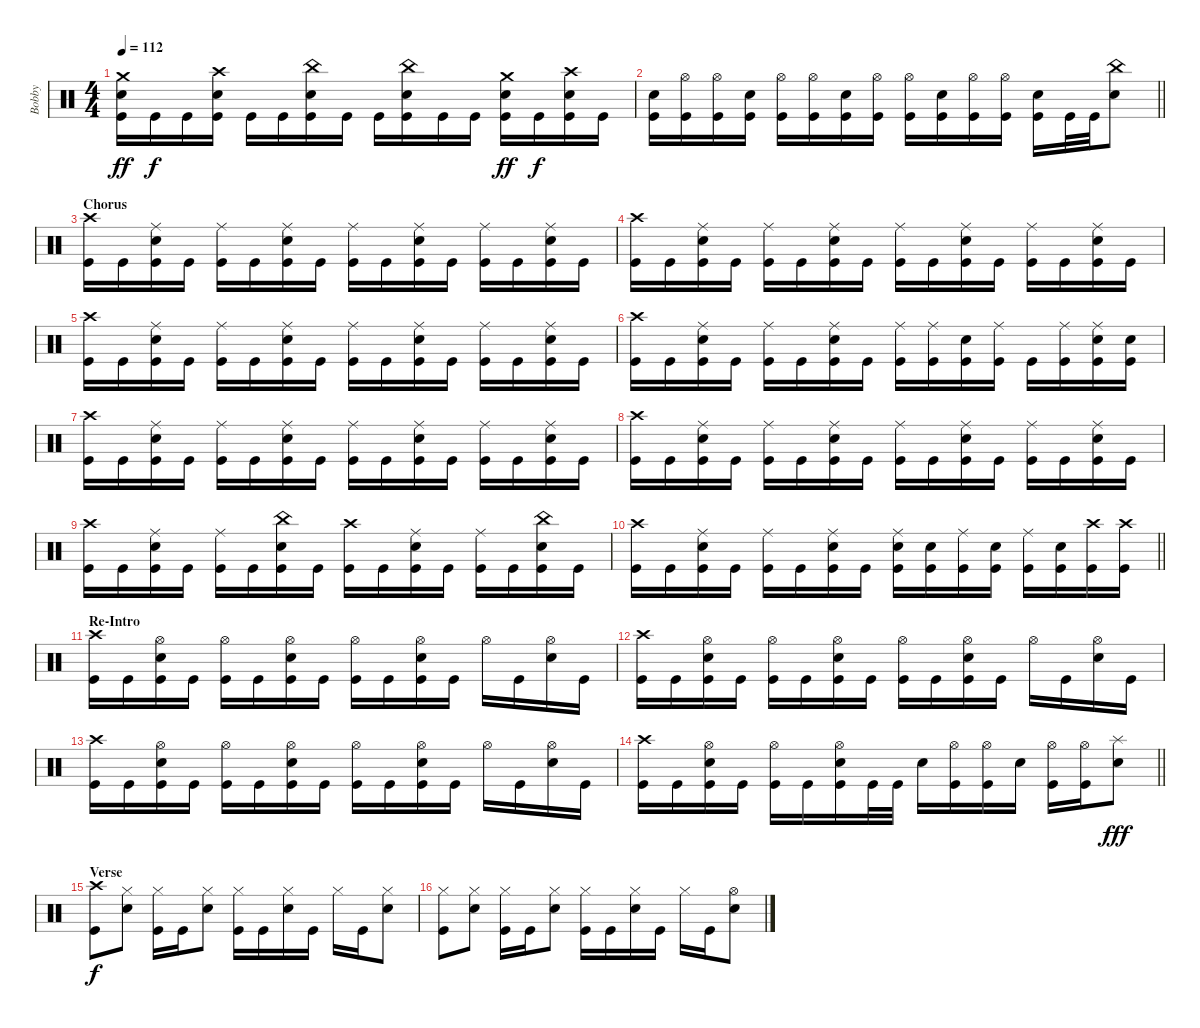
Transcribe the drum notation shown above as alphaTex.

\track ("Bobby" "Bobby") {instrument percussion}
\staff {score}
\articulation defaults
\ts (4 4)
\tempo 112
\clef neutral
\ks c
("Crash medium (hit)" "Electric Snare (hit)" "Kick (hit)").16{dy ff} "Kick (hit)".16{dy f} "Kick (hit)".16 ("Crash high (hit)" "Electric Snare (hit)" "Kick (hit)").16 "Kick (hit)".16 "Kick (hit)".16 ("China (hit)" "Electric Snare (hit)" "Kick (hit)").16 "Kick (hit)".16 "Kick (hit)".16 ("China (hit)" "Electric Snare (hit)" "Kick (hit)").16 "Kick (hit)".16 "Kick (hit)".16 ("Crash medium (hit)" "Electric Snare (hit)" "Kick (hit)").16{dy ff} "Kick (hit)".16{dy f} ("Crash high (hit)" "Electric Snare (hit)" "Kick (hit)").16 "Kick (hit)".16 |
\barLineRight lightlight
("Electric Snare (hit)" "Kick (hit)").16 ("Hi-Hat (open)" "Kick (hit)").16 ("Hi-Hat (open)" "Kick (hit)").16 ("Electric Snare (hit)" "Kick (hit)").16 ("Hi-Hat (open)" "Kick (hit)").16 ("Hi-Hat (open)" "Kick (hit)").16 ("Electric Snare (hit)" "Kick (hit)").16 ("Hi-Hat (open)" "Kick (hit)").16 ("Hi-Hat (open)" "Kick (hit)").16 ("Electric Snare (hit)" "Kick (hit)").16 ("Hi-Hat (open)" "Kick (hit)").16 ("Hi-Hat (open)" "Kick (hit)").16 ("Electric Snare (hit)" "Kick (hit)").16 "Kick (hit)".32 "Kick (hit)".32 ("China (hit)" "Electric Snare (hit)").8 |
\section ("" "Chorus")
("Crash high (hit)" "Kick (hit)").16 "Kick (hit)".16 ("Ride (middle)" "Electric Snare (hit)" "Kick (hit)").16 "Kick (hit)".16 ("Ride (middle)" "Kick (hit)").16 "Kick (hit)".16 ("Ride (middle)" "Electric Snare (hit)" "Kick (hit)").16 "Kick (hit)".16 ("Ride (middle)" "Kick (hit)").16 "Kick (hit)".16 ("Ride (middle)" "Electric Snare (hit)" "Kick (hit)").16 "Kick (hit)".16 ("Ride (middle)" "Kick (hit)").16 "Kick (hit)".16 ("Ride (middle)" "Electric Snare (hit)" "Kick (hit)").16 "Kick (hit)".16 |
("Crash high (hit)" "Kick (hit)").16 "Kick (hit)".16 ("Ride (middle)" "Electric Snare (hit)" "Kick (hit)").16 "Kick (hit)".16 ("Ride (middle)" "Kick (hit)").16 "Kick (hit)".16 ("Ride (middle)" "Electric Snare (hit)" "Kick (hit)").16 "Kick (hit)".16 ("Ride (middle)" "Kick (hit)").16 "Kick (hit)".16 ("Ride (middle)" "Electric Snare (hit)" "Kick (hit)").16 "Kick (hit)".16 ("Ride (middle)" "Kick (hit)").16 "Kick (hit)".16 ("Ride (middle)" "Electric Snare (hit)" "Kick (hit)").16 "Kick (hit)".16 |
("Crash high (hit)" "Kick (hit)").16 "Kick (hit)".16 ("Ride (middle)" "Electric Snare (hit)" "Kick (hit)").16 "Kick (hit)".16 ("Ride (middle)" "Kick (hit)").16 "Kick (hit)".16 ("Ride (middle)" "Electric Snare (hit)" "Kick (hit)").16 "Kick (hit)".16 ("Ride (middle)" "Kick (hit)").16 "Kick (hit)".16 ("Ride (middle)" "Electric Snare (hit)" "Kick (hit)").16 "Kick (hit)".16 ("Ride (middle)" "Kick (hit)").16 "Kick (hit)".16 ("Ride (middle)" "Electric Snare (hit)" "Kick (hit)").16 "Kick (hit)".16 |
("Crash high (hit)" "Kick (hit)").16 "Kick (hit)".16 ("Ride (middle)" "Electric Snare (hit)" "Kick (hit)").16 "Kick (hit)".16 ("Ride (middle)" "Kick (hit)").16 "Kick (hit)".16 ("Ride (middle)" "Electric Snare (hit)" "Kick (hit)").16 "Kick (hit)".16 ("Ride (middle)" "Kick (hit)").16 ("Ride (middle)" "Kick (hit)").16 ("Electric Snare (hit)" "Kick (hit)").16 ("Ride (middle)" "Kick (hit)").16 "Kick (hit)".16 ("Ride (middle)" "Kick (hit)").16 ("Ride (middle)" "Electric Snare (hit)" "Kick (hit)").16 ("Electric Snare (hit)" "Kick (hit)").16 |
("Crash high (hit)" "Kick (hit)").16 "Kick (hit)".16 ("Ride (middle)" "Electric Snare (hit)" "Kick (hit)").16 "Kick (hit)".16 ("Ride (middle)" "Kick (hit)").16 "Kick (hit)".16 ("Ride (middle)" "Electric Snare (hit)" "Kick (hit)").16 "Kick (hit)".16 ("Ride (middle)" "Kick (hit)").16 "Kick (hit)".16 ("Ride (middle)" "Electric Snare (hit)" "Kick (hit)").16 "Kick (hit)".16 ("Ride (middle)" "Kick (hit)").16 "Kick (hit)".16 ("Ride (middle)" "Electric Snare (hit)" "Kick (hit)").16 "Kick (hit)".16 |
("Crash high (hit)" "Kick (hit)").16 "Kick (hit)".16 ("Ride (middle)" "Electric Snare (hit)" "Kick (hit)").16 "Kick (hit)".16 ("Ride (middle)" "Kick (hit)").16 "Kick (hit)".16 ("Ride (middle)" "Electric Snare (hit)" "Kick (hit)").16 "Kick (hit)".16 ("Ride (middle)" "Kick (hit)").16 "Kick (hit)".16 ("Ride (middle)" "Electric Snare (hit)" "Kick (hit)").16 "Kick (hit)".16 ("Ride (middle)" "Kick (hit)").16 "Kick (hit)".16 ("Ride (middle)" "Electric Snare (hit)" "Kick (hit)").16 "Kick (hit)".16 |
("Crash high (hit)" "Kick (hit)").16 "Kick (hit)".16 ("Ride (middle)" "Electric Snare (hit)" "Kick (hit)").16 "Kick (hit)".16 ("Ride (middle)" "Kick (hit)").16 "Kick (hit)".16 ("China (hit)" "Electric Snare (hit)" "Kick (hit)").16 "Kick (hit)".16 ("Crash high (hit)" "Kick (hit)").16 "Kick (hit)".16 ("Ride (middle)" "Electric Snare (hit)" "Kick (hit)").16 "Kick (hit)".16 ("Ride (middle)" "Kick (hit)").16 "Kick (hit)".16 ("China (hit)" "Electric Snare (hit)" "Kick (hit)").16 "Kick (hit)".16 |
\barLineRight lightlight
("Crash high (hit)" "Kick (hit)").16 "Kick (hit)".16 ("Ride (middle)" "Electric Snare (hit)" "Kick (hit)").16 "Kick (hit)".16 ("Ride (middle)" "Kick (hit)").16 "Kick (hit)".16 ("Ride (middle)" "Electric Snare (hit)" "Kick (hit)").16 "Kick (hit)".16 ("Ride (middle)" "Electric Snare (hit)" "Kick (hit)").16 ("Electric Snare (hit)" "Kick (hit)").16 ("Ride (middle)" "Kick (hit)").16 ("Electric Snare (hit)" "Kick (hit)").16 ("Ride (middle)" "Kick (hit)").16 ("Electric Snare (hit)" "Kick (hit)").16 ("Crash high (hit)" "Kick (hit)").16 ("Crash high (hit)" "Kick (hit)").16 |
\section ("" "Re-Intro")
("Crash high (hit)" "Kick (hit)").16 "Kick (hit)".16 ("Hi-Hat (open)" "Electric Snare (hit)" "Kick (hit)").16 "Kick (hit)".16 ("Hi-Hat (open)" "Kick (hit)").16 "Kick (hit)".16 ("Hi-Hat (open)" "Electric Snare (hit)" "Kick (hit)").16 "Kick (hit)".16 ("Hi-Hat (open)" "Kick (hit)").16 "Kick (hit)".16 ("Hi-Hat (open)" "Electric Snare (hit)" "Kick (hit)").16 "Kick (hit)".16 "Hi-Hat (open)".16 "Kick (hit)".16 ("Hi-Hat (open)" "Electric Snare (hit)").16 "Kick (hit)".16 |
("Crash high (hit)" "Kick (hit)").16 "Kick (hit)".16 ("Hi-Hat (open)" "Electric Snare (hit)" "Kick (hit)").16 "Kick (hit)".16 ("Hi-Hat (open)" "Kick (hit)").16 "Kick (hit)".16 ("Hi-Hat (open)" "Electric Snare (hit)" "Kick (hit)").16 "Kick (hit)".16 ("Hi-Hat (open)" "Kick (hit)").16 "Kick (hit)".16 ("Hi-Hat (open)" "Electric Snare (hit)" "Kick (hit)").16 "Kick (hit)".16 "Hi-Hat (open)".16 "Kick (hit)".16 ("Hi-Hat (open)" "Electric Snare (hit)").16 "Kick (hit)".16 |
("Crash high (hit)" "Kick (hit)").16 "Kick (hit)".16 ("Hi-Hat (open)" "Electric Snare (hit)" "Kick (hit)").16 "Kick (hit)".16 ("Hi-Hat (open)" "Kick (hit)").16 "Kick (hit)".16 ("Hi-Hat (open)" "Electric Snare (hit)" "Kick (hit)").16 "Kick (hit)".16 ("Hi-Hat (open)" "Kick (hit)").16 "Kick (hit)".16 ("Hi-Hat (open)" "Electric Snare (hit)" "Kick (hit)").16 "Kick (hit)".16 "Hi-Hat (open)".16 "Kick (hit)".16 ("Hi-Hat (open)" "Electric Snare (hit)").16 "Kick (hit)".16 |
\barLineRight lightlight
("Crash high (hit)" "Kick (hit)").16 "Kick (hit)".16 ("Hi-Hat (open)" "Electric Snare (hit)" "Kick (hit)").16 "Kick (hit)".16 ("Hi-Hat (open)" "Kick (hit)").16 "Kick (hit)".16 ("Hi-Hat (open)" "Electric Snare (hit)" "Kick (hit)").16 "Kick (hit)".32 "Kick (hit)".32 "Electric Snare (hit)".16 ("Hi-Hat (open)" "Kick (hit)").16 ("Hi-Hat (open)" "Kick (hit)").16 "Electric Snare (hit)".16 ("Hi-Hat (open)" "Kick (hit)").16 ("Hi-Hat (open)" "Kick (hit)").16 ("Splash (hit)" "Electric Snare (hit)").8{dy fff} |
\section ("" "Verse")
("Crash high (hit)" "Kick (hit)").8{dy f} ("Hi-Hat (closed)" "Electric Snare (hit)").8 ("Hi-Hat (closed)" "Kick (hit)").16 "Kick (hit)".16 ("Hi-Hat (closed)" "Electric Snare (hit)").8 ("Hi-Hat (closed)" "Kick (hit)").16 "Kick (hit)".16 ("Hi-Hat (closed)" "Electric Snare (hit)").16 "Kick (hit)".16 "Hi-Hat (closed)".16 "Kick (hit)".16 ("Hi-Hat (closed)" "Electric Snare (hit)").8 |
("Hi-Hat (closed)" "Kick (hit)").8 ("Hi-Hat (closed)" "Electric Snare (hit)").8 ("Hi-Hat (closed)" "Kick (hit)").16 "Kick (hit)".16 ("Hi-Hat (closed)" "Electric Snare (hit)").8 ("Hi-Hat (closed)" "Kick (hit)").16 "Kick (hit)".16 ("Hi-Hat (closed)" "Electric Snare (hit)").16 "Kick (hit)".16 "Hi-Hat (closed)".16 "Kick (hit)".16 ("Hi-Hat (open)" "Electric Snare (hit)").8
